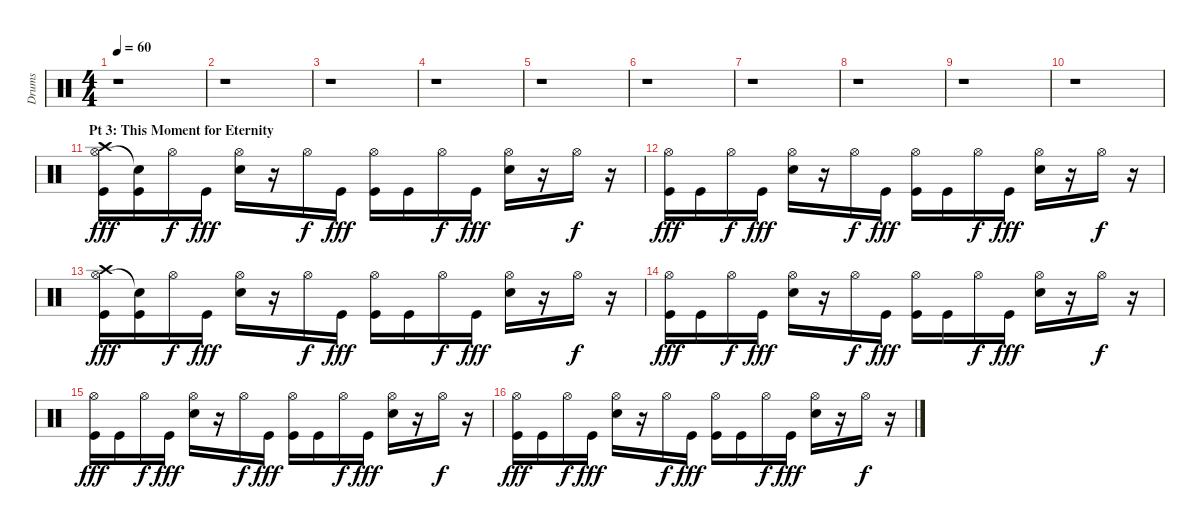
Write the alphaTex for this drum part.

\track ("Drums" "Drums") {instrument percussion}
\staff {score}
\articulation defaults
\ts (4 4)
\tempo 60
\clef neutral
\ks c
r.1{dy fff} |
r.1 |
r.1 |
r.1 |
r.1 |
r.1 |
r.1 |
r.1 |
r.1 |
r.1 |
\section ("" "Pt 3: This Moment for Eternity")
("Hi-Hat (open)" "Crash high (hit)" "Kick (hit)").16 ("Snare (hit)"{t} "Kick (hit)").16 "Hi-Hat (open)".16{dy f} "Kick (hit)".16{dy fff} ("Hi-Hat (open)" "Snare (hit) 2").16 r.16 "Hi-Hat (open)".16{dy f} "Kick (hit)".16{dy fff} ("Hi-Hat (open)" "Kick (hit)").16 "Kick (hit)".16 "Hi-Hat (open)".16{dy f} "Kick (hit)".16{dy fff} ("Hi-Hat (open)" "Snare (hit) 2").16 r.16 "Hi-Hat (open)".16{dy f} r.16 |
("Hi-Hat (open)" "Kick (hit)").16{dy fff} "Kick (hit)".16 "Hi-Hat (open)".16{dy f} "Kick (hit)".16{dy fff} ("Hi-Hat (open)" "Snare (hit) 2").16 r.16 "Hi-Hat (open)".16{dy f} "Kick (hit)".16{dy fff} ("Hi-Hat (open)" "Kick (hit)").16 "Kick (hit)".16 "Hi-Hat (open)".16{dy f} "Kick (hit)".16{dy fff} ("Hi-Hat (open)" "Snare (hit) 2").16 r.16 "Hi-Hat (open)".16{dy f} r.16 |
("Hi-Hat (open)" "Crash high (hit)" "Kick (hit)").16{dy fff} ("Snare (hit)"{t} "Kick (hit)").16 "Hi-Hat (open)".16{dy f} "Kick (hit)".16{dy fff} ("Hi-Hat (open)" "Snare (hit) 2").16 r.16 "Hi-Hat (open)".16{dy f} "Kick (hit)".16{dy fff} ("Hi-Hat (open)" "Kick (hit)").16 "Kick (hit)".16 "Hi-Hat (open)".16{dy f} "Kick (hit)".16{dy fff} ("Hi-Hat (open)" "Snare (hit) 2").16 r.16 "Hi-Hat (open)".16{dy f} r.16 |
("Hi-Hat (open)" "Kick (hit)").16{dy fff} "Kick (hit)".16 "Hi-Hat (open)".16{dy f} "Kick (hit)".16{dy fff} ("Hi-Hat (open)" "Snare (hit) 2").16 r.16 "Hi-Hat (open)".16{dy f} "Kick (hit)".16{dy fff} ("Hi-Hat (open)" "Kick (hit)").16 "Kick (hit)".16 "Hi-Hat (open)".16{dy f} "Kick (hit)".16{dy fff} ("Hi-Hat (open)" "Snare (hit) 2").16 r.16 "Hi-Hat (open)".16{dy f} r.16 |
("Hi-Hat (open)" "Kick (hit)").16{dy fff} "Kick (hit)".16 "Hi-Hat (open)".16{dy f} "Kick (hit)".16{dy fff} ("Hi-Hat (open)" "Snare (hit) 2").16 r.16 "Hi-Hat (open)".16{dy f} "Kick (hit)".16{dy fff} ("Hi-Hat (open)" "Kick (hit)").16 "Kick (hit)".16 "Hi-Hat (open)".16{dy f} "Kick (hit)".16{dy fff} ("Hi-Hat (open)" "Snare (hit) 2").16 r.16 "Hi-Hat (open)".16{dy f} r.16 |
("Hi-Hat (open)" "Kick (hit)").16{dy fff} "Kick (hit)".16 "Hi-Hat (open)".16{dy f} "Kick (hit)".16{dy fff} ("Hi-Hat (open)" "Snare (hit) 2").16 r.16 "Hi-Hat (open)".16{dy f} "Kick (hit)".16{dy fff} ("Hi-Hat (open)" "Kick (hit)").16 "Kick (hit)".16 "Hi-Hat (open)".16{dy f} "Kick (hit)".16{dy fff} ("Hi-Hat (open)" "Snare (hit) 2").16 r.16 "Hi-Hat (open)".16{dy f} r.16
